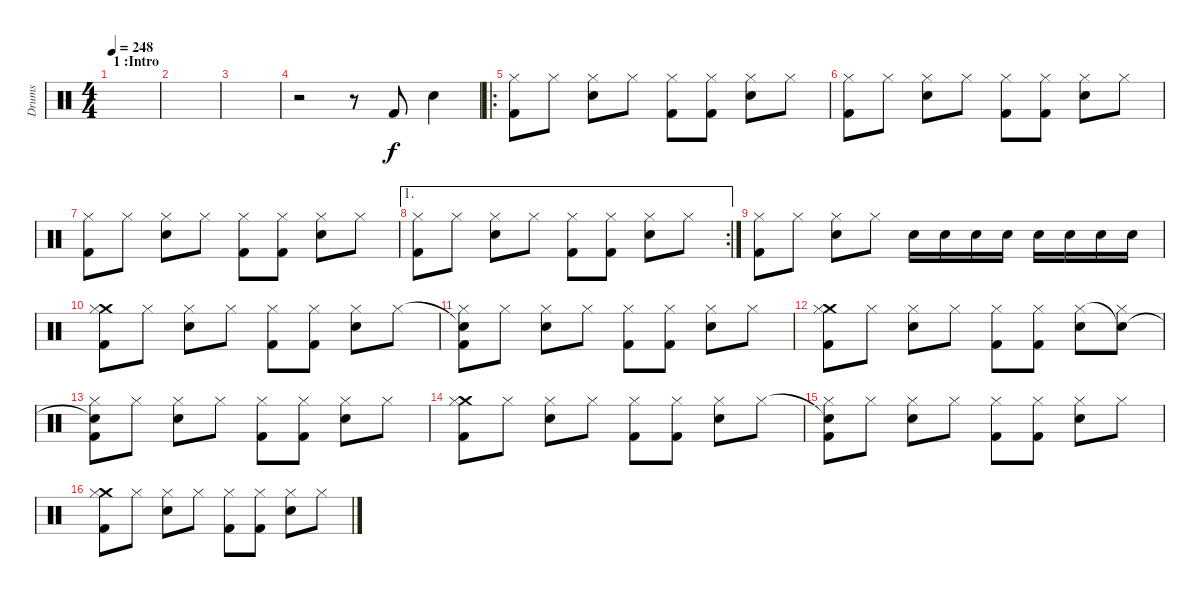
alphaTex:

\track ("Drums" "Drums") {instrument percussion}
\staff {score}
\articulation defaults
\ts (4 4)
\section ("" "1 :Intro ")
\tempo 248
\clef neutral
\ks c
|
|
|
r.2 r.8 "Kick (hit) 2".8 "Electric Snare (hit)".4 |
\ro
("Hi-Hat (closed)" "Kick (hit) 2").8 "Hi-Hat (closed)".8 ("Hi-Hat (closed)" "Electric Snare (hit)").8 "Hi-Hat (closed)".8 ("Hi-Hat (closed)" "Kick (hit) 2").8 ("Hi-Hat (closed)" "Kick (hit) 2").8 ("Hi-Hat (closed)" "Electric Snare (hit)").8 "Hi-Hat (closed)".8 |
("Hi-Hat (closed)" "Kick (hit) 2").8 "Hi-Hat (closed)".8 ("Hi-Hat (closed)" "Electric Snare (hit)").8 "Hi-Hat (closed)".8 ("Hi-Hat (closed)" "Kick (hit) 2").8 ("Hi-Hat (closed)" "Kick (hit) 2").8 ("Hi-Hat (closed)" "Electric Snare (hit)").8 "Hi-Hat (closed)".8 |
("Hi-Hat (closed)" "Kick (hit) 2").8 "Hi-Hat (closed)".8 ("Hi-Hat (closed)" "Electric Snare (hit)").8 "Hi-Hat (closed)".8 ("Hi-Hat (closed)" "Kick (hit) 2").8 ("Hi-Hat (closed)" "Kick (hit) 2").8 ("Hi-Hat (closed)" "Electric Snare (hit)").8 "Hi-Hat (closed)".8 |
\ae 1
\rc 2
("Hi-Hat (closed)" "Kick (hit) 2").8 "Hi-Hat (closed)".8 ("Hi-Hat (closed)" "Electric Snare (hit)").8 "Hi-Hat (closed)".8 ("Hi-Hat (closed)" "Kick (hit) 2").8 ("Hi-Hat (closed)" "Kick (hit) 2").8 ("Hi-Hat (closed)" "Electric Snare (hit)").8 "Hi-Hat (closed)".8 |
("Hi-Hat (closed)" "Kick (hit) 2").8 "Hi-Hat (closed)".8 ("Hi-Hat (closed)" "Electric Snare (hit)").8 "Hi-Hat (closed)".8 "Electric Snare (hit)".16 "Electric Snare (hit)".16 "Electric Snare (hit)".16 "Electric Snare (hit)".16 "Electric Snare (hit)".16 "Electric Snare (hit)".16 "Electric Snare (hit)".16 "Electric Snare (hit)".16 |
("Crash medium (hit)" "Hi-Hat (closed)" "Kick (hit) 2").8 "Hi-Hat (closed)".8 ("Hi-Hat (closed)" "Electric Snare (hit)").8 "Hi-Hat (closed)".8 ("Hi-Hat (closed)" "Kick (hit) 2").8 ("Hi-Hat (closed)" "Kick (hit) 2").8 ("Hi-Hat (closed)" "Electric Snare (hit)").8 "Hi-Hat (closed)".8 |
("Snare (hit)"{t} "Hi-Hat (closed)" "Kick (hit) 2").8 "Hi-Hat (closed)".8 ("Hi-Hat (closed)" "Electric Snare (hit)").8 "Hi-Hat (closed)".8 ("Hi-Hat (closed)" "Kick (hit) 2").8 ("Hi-Hat (closed)" "Kick (hit) 2").8 ("Hi-Hat (closed)" "Electric Snare (hit)").8 "Hi-Hat (closed)".8 |
("Crash medium (hit)" "Hi-Hat (closed)" "Kick (hit) 2").8 "Hi-Hat (closed)".8 ("Hi-Hat (closed)" "Electric Snare (hit)").8 "Hi-Hat (closed)".8 ("Hi-Hat (closed)" "Kick (hit) 2").8 ("Hi-Hat (closed)" "Kick (hit) 2").8 ("Hi-Hat (closed)" "Electric Snare (hit)").8 ("Snare (hit)"{t} "Hi-Hat (closed)").8 |
("Snare (hit)"{t} "Hi-Hat (closed)" "Kick (hit) 2").8 "Hi-Hat (closed)".8 ("Hi-Hat (closed)" "Electric Snare (hit)").8 "Hi-Hat (closed)".8 ("Hi-Hat (closed)" "Kick (hit) 2").8 ("Hi-Hat (closed)" "Kick (hit) 2").8 ("Hi-Hat (closed)" "Electric Snare (hit)").8 "Hi-Hat (closed)".8 |
("Crash medium (hit)" "Hi-Hat (closed)" "Kick (hit) 2").8 "Hi-Hat (closed)".8 ("Hi-Hat (closed)" "Electric Snare (hit)").8 "Hi-Hat (closed)".8 ("Hi-Hat (closed)" "Kick (hit) 2").8 ("Hi-Hat (closed)" "Kick (hit) 2").8 ("Hi-Hat (closed)" "Electric Snare (hit)").8 "Hi-Hat (closed)".8 |
("Snare (hit)"{t} "Hi-Hat (closed)" "Kick (hit) 2").8 "Hi-Hat (closed)".8 ("Hi-Hat (closed)" "Electric Snare (hit)").8 "Hi-Hat (closed)".8 ("Hi-Hat (closed)" "Kick (hit) 2").8 ("Hi-Hat (closed)" "Kick (hit) 2").8 ("Hi-Hat (closed)" "Electric Snare (hit)").8 "Hi-Hat (closed)".8 |
("Crash medium (hit)" "Hi-Hat (closed)" "Kick (hit) 2").8 "Hi-Hat (closed)".8 ("Hi-Hat (closed)" "Electric Snare (hit)").8 "Hi-Hat (closed)".8 ("Hi-Hat (closed)" "Kick (hit) 2").8 ("Hi-Hat (closed)" "Kick (hit) 2").8 ("Hi-Hat (closed)" "Electric Snare (hit)").8 "Hi-Hat (closed)".8
